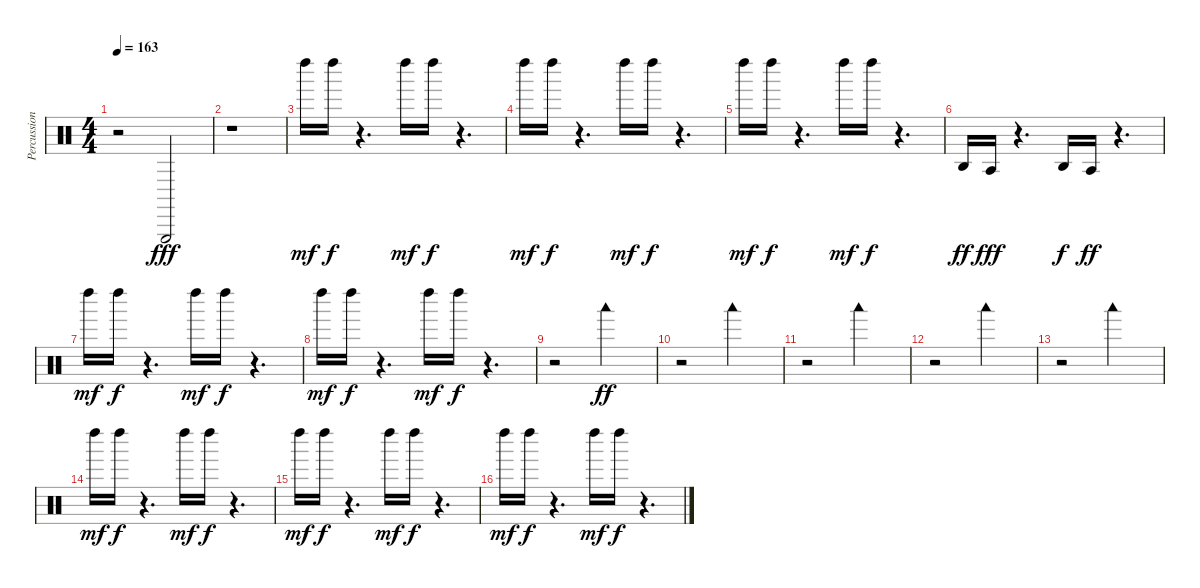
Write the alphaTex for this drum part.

\track ("Percussion" "Percussion") {instrument percussion}
\staff {score}
\articulation defaults
\ts (4 4)
\tempo 163
\clef neutral
\ks c
r.2{dy ff} "Triangle (hit)".2{dy fff} |
r.1 |
"Left Maraca (hit)".16{dy mf} "Left Maraca (hit)".16{dy f} r.4{d} "Left Maraca (hit)".16{dy mf} "Left Maraca (hit)".16{dy f} r.4{d} |
"Left Maraca (hit)".16{dy mf} "Left Maraca (hit)".16{dy f} r.4{d} "Left Maraca (hit)".16{dy mf} "Left Maraca (hit)".16{dy f} r.4{d} |
"Left Maraca (hit)".16{dy mf} "Left Maraca (hit)".16{dy f} r.4{d} "Left Maraca (hit)".16{dy mf} "Left Maraca (hit)".16{dy f} r.4{d} |
"Agogo high (hit)".16{dy ff} "Agogo tow (hit)".16{dy fff} r.4{d} "Agogo high (hit)".16{dy f} "Agogo tow (hit)".16{dy ff} r.4{d} |
"Left Maraca (hit)".16{dy mf} "Left Maraca (hit)".16{dy f} r.4{d} "Left Maraca (hit)".16{dy mf} "Left Maraca (hit)".16{dy f} r.4{d} |
"Left Maraca (hit)".16{dy mf} "Left Maraca (hit)".16{dy f} r.4{d} "Left Maraca (hit)".16{dy mf} "Left Maraca (hit)".16{dy f} r.4{d} |
r.2 "Woodblock low (hit)".2{dy ff} |
r.2 "Woodblock low (hit)".2 |
r.2 "Woodblock low (hit)".2 |
r.2 "Woodblock low (hit)".2 |
r.2 "Woodblock low (hit)".2 |
"Left Maraca (hit)".16{dy mf} "Left Maraca (hit)".16{dy f} r.4{d} "Left Maraca (hit)".16{dy mf} "Left Maraca (hit)".16{dy f} r.4{d} |
"Left Maraca (hit)".16{dy mf} "Left Maraca (hit)".16{dy f} r.4{d} "Left Maraca (hit)".16{dy mf} "Left Maraca (hit)".16{dy f} r.4{d} |
"Left Maraca (hit)".16{dy mf} "Left Maraca (hit)".16{dy f} r.4{d} "Left Maraca (hit)".16{dy mf} "Left Maraca (hit)".16{dy f} r.4{d}
